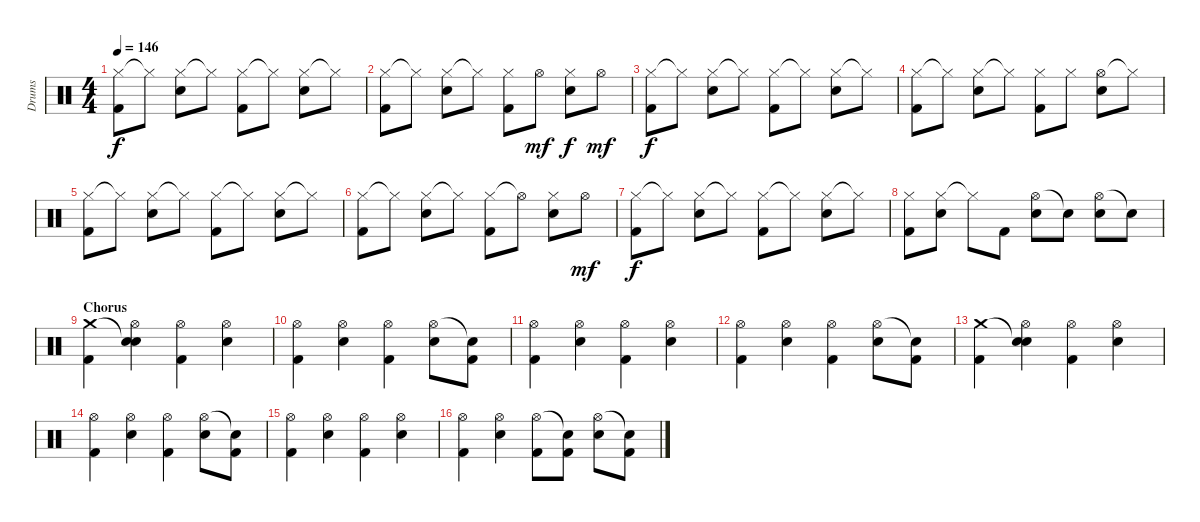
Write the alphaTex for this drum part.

\track ("Drums" "Drums") {instrument percussion}
\staff {score}
\articulation defaults
\ts (4 4)
\tempo 146
\clef neutral
\ks c
("Hi-Hat (closed)" "Kick (hit) 2").8{dy f} "Hi-Hat (closed)"{t}.8 ("Hi-Hat (closed)" "Electric Snare (hit)").8 "Hi-Hat (closed)"{t}.8 ("Hi-Hat (closed)" "Kick (hit) 2").8 "Hi-Hat (closed)"{t}.8 ("Hi-Hat (closed)" "Electric Snare (hit)").8 "Hi-Hat (closed)"{t}.8 |
("Hi-Hat (closed)" "Kick (hit) 2").8 "Hi-Hat (closed)"{t}.8 ("Hi-Hat (closed)" "Electric Snare (hit)").8 "Hi-Hat (closed)"{t}.8 ("Hi-Hat (closed)" "Kick (hit) 2").8 "Hi-Hat (open)".8{dy mf} ("Hi-Hat (closed)" "Electric Snare (hit)").8{dy f} "Hi-Hat (open)".8{dy mf} |
("Hi-Hat (closed)" "Kick (hit) 2").8{dy f} "Hi-Hat (closed)"{t}.8 ("Hi-Hat (closed)" "Electric Snare (hit)").8 "Hi-Hat (closed)"{t}.8 ("Hi-Hat (closed)" "Kick (hit) 2").8 "Hi-Hat (closed)"{t}.8 ("Hi-Hat (closed)" "Electric Snare (hit)").8 "Hi-Hat (closed)"{t}.8 |
("Hi-Hat (closed)" "Kick (hit) 2").8 "Hi-Hat (closed)"{t}.8 ("Hi-Hat (closed)" "Electric Snare (hit)").8 "Hi-Hat (closed)"{t}.8 ("Hi-Hat (closed)" "Kick (hit) 2").8 "Hi-Hat (closed)".8 ("Hi-Hat (open)" "Electric Snare (hit)").8 "Hi-Hat (closed)"{t}.8 |
("Hi-Hat (closed)" "Kick (hit) 2").8 "Hi-Hat (closed)"{t}.8 ("Hi-Hat (closed)" "Electric Snare (hit)").8 "Hi-Hat (closed)"{t}.8 ("Hi-Hat (closed)" "Kick (hit) 2").8 "Hi-Hat (closed)"{t}.8 ("Hi-Hat (closed)" "Electric Snare (hit)").8 "Hi-Hat (closed)"{t}.8 |
("Hi-Hat (closed)" "Kick (hit) 2").8 "Hi-Hat (closed)"{t}.8 ("Hi-Hat (closed)" "Electric Snare (hit)").8 "Hi-Hat (closed)"{t}.8 ("Hi-Hat (closed)" "Kick (hit) 2").8 "Hi-Hat (open)"{t}.8 ("Hi-Hat (closed)" "Electric Snare (hit)").8 "Hi-Hat (open)".8{dy mf} |
("Hi-Hat (closed)" "Kick (hit) 2").8{dy f} "Hi-Hat (closed)"{t}.8 ("Hi-Hat (closed)" "Electric Snare (hit)").8 "Hi-Hat (closed)"{t}.8 ("Hi-Hat (closed)" "Kick (hit) 2").8 "Hi-Hat (closed)"{t}.8 ("Hi-Hat (closed)" "Electric Snare (hit)").8 "Hi-Hat (closed)"{t}.8 |
("Hi-Hat (closed)" "Kick (hit) 2").8 ("Hi-Hat (closed)" "Electric Snare (hit)").8 "Hi-Hat (closed)"{t}.8 "Kick (hit) 2".8 ("Hi-Hat (open)" "Electric Snare (hit)").8 "Snare (hit)"{t}.8 ("Hi-Hat (open)" "Electric Snare (hit)").8 "Snare (hit)"{t}.8 |
\section ("" "Chorus")
("Crash medium (hit)" "Kick (hit) 2").4 ("Snare (hit)"{t} "Hi-Hat (open)" "Electric Snare (hit)").4 ("Hi-Hat (open)" "Kick (hit) 2").4 ("Hi-Hat (open)" "Electric Snare (hit)").4 |
("Hi-Hat (open)" "Kick (hit) 2").4 ("Hi-Hat (open)" "Electric Snare (hit)").4 ("Hi-Hat (open)" "Kick (hit) 2").4 ("Hi-Hat (open)" "Electric Snare (hit)").8 ("Snare (hit)"{t} "Kick (hit) 2").8 |
("Hi-Hat (open)" "Kick (hit) 2").4 ("Hi-Hat (open)" "Electric Snare (hit)").4 ("Hi-Hat (open)" "Kick (hit) 2").4 ("Hi-Hat (open)" "Electric Snare (hit)").4 |
("Hi-Hat (open)" "Kick (hit) 2").4 ("Hi-Hat (open)" "Electric Snare (hit)").4 ("Hi-Hat (open)" "Kick (hit) 2").4 ("Hi-Hat (open)" "Electric Snare (hit)").8 ("Snare (hit)"{t} "Kick (hit) 2").8 |
("Crash medium (hit)" "Kick (hit) 2").4 ("Snare (hit)"{t} "Hi-Hat (open)" "Electric Snare (hit)").4 ("Hi-Hat (open)" "Kick (hit) 2").4 ("Hi-Hat (open)" "Electric Snare (hit)").4 |
("Hi-Hat (open)" "Kick (hit) 2").4 ("Hi-Hat (open)" "Electric Snare (hit)").4 ("Hi-Hat (open)" "Kick (hit) 2").4 ("Hi-Hat (open)" "Electric Snare (hit)").8 ("Snare (hit)"{t} "Kick (hit) 2").8 |
("Hi-Hat (open)" "Kick (hit) 2").4 ("Hi-Hat (open)" "Electric Snare (hit)").4 ("Hi-Hat (open)" "Kick (hit) 2").4 ("Hi-Hat (open)" "Electric Snare (hit)").4 |
("Hi-Hat (open)" "Kick (hit) 2").4 ("Hi-Hat (open)" "Electric Snare (hit)").4 ("Hi-Hat (open)" "Kick (hit) 2").8 ("Snare (hit)"{t} "Kick (hit) 2").8 ("Hi-Hat (open)" "Electric Snare (hit)").8 ("Snare (hit)"{t} "Kick (hit) 2").8
